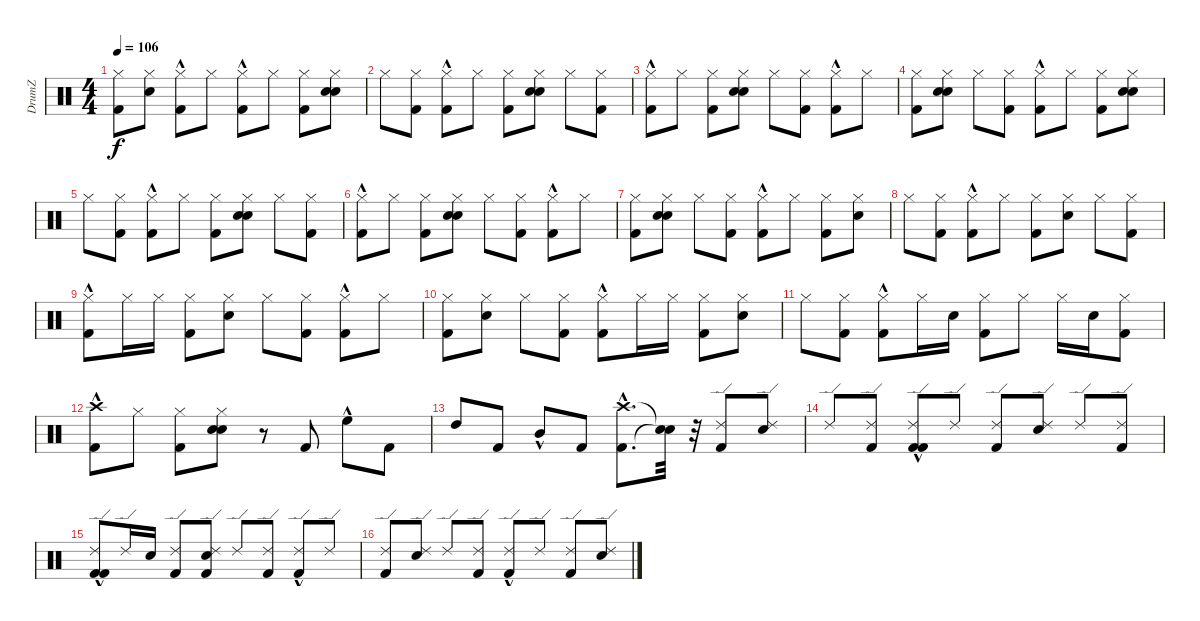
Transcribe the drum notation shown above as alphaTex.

\track ("DrumZ" "DrumZ") {instrument percussion}
\staff {score}
\articulation defaults
\ts (4 4)
\tempo 106
\clef neutral
\ks c
("Hi-Hat (closed)" "Kick (hit) 2").8{dy f} ("Hi-Hat (closed)" "Electric Snare (hit)").8 ("Hi-Hat (closed)" "Kick (hit) 2"{hac}).8 "Hi-Hat (closed)".8 ("Hi-Hat (closed)" "Kick (hit) 2"{hac}).8 "Hi-Hat (closed)".8 ("Hi-Hat (closed)" "Kick (hit) 2").8 ("Hi-Hat (closed)" "Snare (hit) 2" "Electric Snare (hit)").8 |
"Hi-Hat (closed)".8 ("Hi-Hat (closed)" "Kick (hit) 2").8 ("Hi-Hat (closed)" "Kick (hit) 2"{hac}).8 "Hi-Hat (closed)".8 ("Hi-Hat (closed)" "Kick (hit) 2").8 ("Hi-Hat (closed)" "Snare (hit) 2" "Electric Snare (hit)").8 "Hi-Hat (closed)".8 ("Hi-Hat (closed)" "Kick (hit) 2").8 |
("Hi-Hat (closed)" "Kick (hit) 2"{hac}).8 "Hi-Hat (closed)".8 ("Hi-Hat (closed)" "Kick (hit) 2").8 ("Hi-Hat (closed)" "Snare (hit) 2" "Electric Snare (hit)").8 "Hi-Hat (closed)".8 ("Hi-Hat (closed)" "Kick (hit) 2").8 ("Hi-Hat (closed)" "Kick (hit) 2"{hac}).8 "Hi-Hat (closed)".8 |
("Hi-Hat (closed)" "Kick (hit) 2").8 ("Hi-Hat (closed)" "Snare (hit) 2" "Electric Snare (hit)").8 "Hi-Hat (closed)".8 ("Hi-Hat (closed)" "Kick (hit) 2").8 ("Hi-Hat (closed)" "Kick (hit) 2"{hac}).8 "Hi-Hat (closed)".8 ("Hi-Hat (closed)" "Kick (hit) 2").8 ("Hi-Hat (closed)" "Snare (hit) 2" "Electric Snare (hit)").8 |
"Hi-Hat (closed)".8 ("Hi-Hat (closed)" "Kick (hit) 2").8 ("Hi-Hat (closed)" "Kick (hit) 2"{hac}).8 "Hi-Hat (closed)".8 ("Hi-Hat (closed)" "Kick (hit) 2").8 ("Hi-Hat (closed)" "Snare (hit) 2" "Electric Snare (hit)").8 "Hi-Hat (closed)".8 ("Hi-Hat (closed)" "Kick (hit) 2").8 |
("Hi-Hat (closed)" "Kick (hit) 2"{hac}).8 "Hi-Hat (closed)".8 ("Hi-Hat (closed)" "Kick (hit) 2").8 ("Hi-Hat (closed)" "Snare (hit) 2" "Electric Snare (hit)").8 "Hi-Hat (closed)".8 ("Hi-Hat (closed)" "Kick (hit) 2").8 ("Hi-Hat (closed)" "Kick (hit) 2"{hac}).8 "Hi-Hat (closed)".8 |
("Hi-Hat (closed)" "Kick (hit) 2").8 ("Hi-Hat (closed)" "Snare (hit) 2" "Electric Snare (hit)").8 "Hi-Hat (closed)".8 ("Hi-Hat (closed)" "Kick (hit) 2").8 ("Hi-Hat (closed)" "Kick (hit) 2"{hac}).8 "Hi-Hat (closed)".8 ("Hi-Hat (closed)" "Kick (hit) 2").8 ("Hi-Hat (closed)" "Snare (hit) 2").8 |
"Hi-Hat (closed)".8 ("Hi-Hat (closed)" "Kick (hit) 2").8 ("Hi-Hat (closed)" "Kick (hit) 2"{hac}).8 "Hi-Hat (closed)".8 ("Hi-Hat (closed)" "Kick (hit) 2").8 ("Hi-Hat (closed)" "Snare (hit) 2").8 "Hi-Hat (closed)".8 ("Hi-Hat (closed)" "Kick (hit) 2").8 |
("Kick (hit) 2"{hac} "Hi-Hat (closed)").8 "Hi-Hat (closed)".16 "Hi-Hat (closed)".16 ("Kick (hit) 2" "Hi-Hat (closed)").8 ("Hi-Hat (closed)" "Snare (hit) 2").8 "Hi-Hat (closed)".8 ("Kick (hit) 2" "Hi-Hat (closed)").8 ("Kick (hit) 2"{hac} "Hi-Hat (closed)").8 "Hi-Hat (closed)".8 |
("Kick (hit) 2" "Hi-Hat (closed)").8 ("Hi-Hat (closed)" "Snare (hit) 2").8 "Hi-Hat (closed)".8 ("Kick (hit) 2" "Hi-Hat (closed)").8 ("Kick (hit) 2"{hac} "Hi-Hat (closed)").8 "Hi-Hat (closed)".16 "Hi-Hat (closed)".16 ("Kick (hit) 2" "Hi-Hat (closed)").8 ("Hi-Hat (closed)" "Snare (hit) 2").8 |
"Hi-Hat (closed)".8 ("Kick (hit) 2" "Hi-Hat (closed)").8 ("Kick (hit) 2"{hac} "Hi-Hat (closed)").8 "Hi-Hat (closed)".16 "Snare (hit) 2".16 ("Kick (hit) 2" "Hi-Hat (closed)").8 "Hi-Hat (closed)".8 "Hi-Hat (closed)".16 "Snare (hit) 2".16 ("Kick (hit) 2" "Hi-Hat (closed)").8 |
("Kick (hit) 2"{hac} "Crash high (hit)").8 "Hi-Hat (closed)".8 ("Hi-Hat (closed)" "Kick (hit) 2").8 ("Hi-Hat (closed)" "Snare (hit) 2" "Electric Snare (hit)").8 r.8 "Kick (hit) 2".8 "High Floor Tom (hit)"{hac}.8 "Kick (hit) 2".8 |
"High Tom (hit)".8 "Kick (hit) 2".8 "Mid Tom (hit)"{hac}.8 "Kick (hit) 2".8 ("Kick (hit) 2"{hac} "Crash high (hit)"{hac}).8{d} ("Snare (hit)"{t} "Snare (hit)"{t}).32 r.32 ("Kick (hit) 2" "Ride (edge) 2").8 ("Ride (edge) 2" "Electric Snare (hit)").8 |
"Ride (edge) 2".8 ("Kick (hit) 2" "Ride (edge) 2").8 ("Kick (hit) 2"{hac} "Ride (edge) 2" "Kick (hit) 2").8 "Ride (edge) 2".8 ("Kick (hit) 2" "Ride (edge) 2").8 ("Ride (edge) 2" "Electric Snare (hit)").8 "Ride (edge) 2".8 ("Kick (hit) 2" "Ride (edge) 2").8 |
("Kick (hit) 2"{hac} "Ride (edge) 2" "Kick (hit) 2").8 "Ride (edge) 2".16 "Electric Snare (hit)".16 ("Kick (hit) 2" "Ride (edge) 2").8 ("Kick (hit) 2" "Electric Snare (hit)" "Ride (edge) 2").8 "Ride (edge) 2".8 ("Kick (hit) 2" "Ride (edge) 2").8 ("Kick (hit) 2"{hac} "Ride (edge) 2").8 "Ride (edge) 2".8 |
("Kick (hit) 2" "Ride (edge) 2").8 ("Electric Snare (hit)" "Ride (edge) 2").8 "Ride (edge) 2".8 ("Kick (hit) 2" "Ride (edge) 2").8 ("Kick (hit) 2"{hac} "Ride (edge) 2").8 "Ride (edge) 2".8 ("Kick (hit) 2" "Ride (edge) 2").8 ("Electric Snare (hit)" "Ride (edge) 2").8
